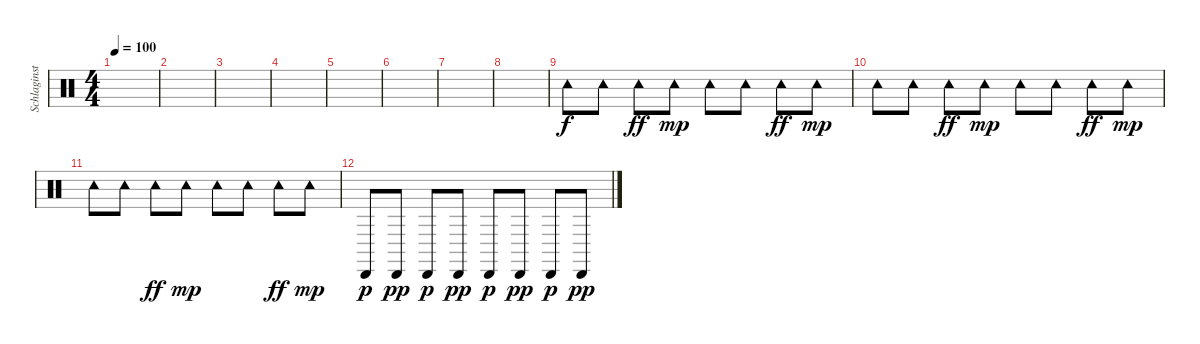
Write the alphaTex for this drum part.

\track ("Schlaginstrumente - Auswahl" "Schlaginst") {instrument percussion}
\staff {score}
\articulation defaults
\ts (4 4)
\tempo 100
\clef neutral
\ks c
|
|
|
|
|
|
|
|
"Tambourine (hit)".8 "Tambourine (hit)".8 "Tambourine (hit)".8{dy ff} "Tambourine (hit)".8{dy mp} "Tambourine (hit)".8 "Tambourine (hit)".8 "Tambourine (hit)".8{dy ff} "Tambourine (hit)".8{dy mp} |
"Tambourine (hit)".8 "Tambourine (hit)".8 "Tambourine (hit)".8{dy ff} "Tambourine (hit)".8{dy mp} "Tambourine (hit)".8 "Tambourine (hit)".8 "Tambourine (hit)".8{dy ff} "Tambourine (hit)".8{dy mp} |
"Tambourine (hit)".8 "Tambourine (hit)".8 "Tambourine (hit)".8{dy ff} "Tambourine (hit)".8{dy mp} "Tambourine (hit)".8 "Tambourine (hit)".8 "Tambourine (hit)".8{dy ff} "Tambourine (hit)".8{dy mp} |
"Cabasa (hit)".8{dy p} "Cabasa (hit)".8{dy pp} "Cabasa (hit)".8{dy p} "Cabasa (hit)".8{dy pp} "Cabasa (hit)".8{dy p} "Cabasa (hit)".8{dy pp} "Cabasa (hit)".8{dy p} "Cabasa (hit)".8{dy pp}
